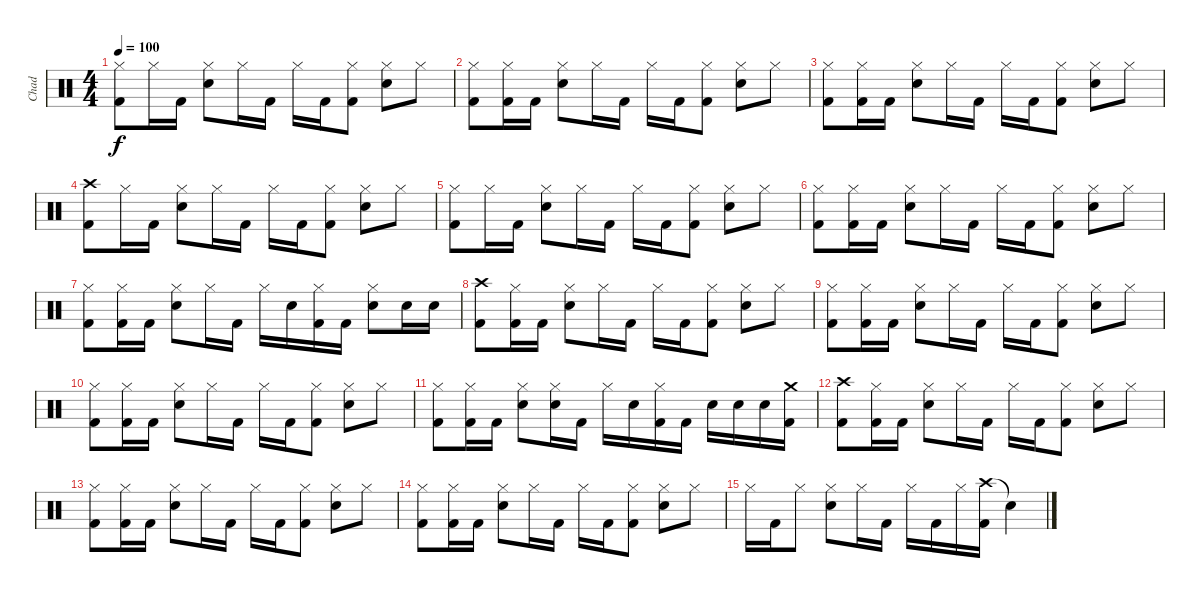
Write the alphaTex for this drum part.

\track ("Chad" "Chad") {instrument percussion}
\staff {score}
\articulation defaults
\ts (4 4)
\tempo 100
\clef neutral
\ks c
("Hi-Hat (closed)" "Kick (hit) 2").8{dy f} "Hi-Hat (closed)".16 "Kick (hit) 2".16 ("Hi-Hat (closed)" "Electric Snare (hit)").8 "Hi-Hat (closed)".16 "Kick (hit) 2".16 "Hi-Hat (closed)".16 "Kick (hit) 2".16 ("Hi-Hat (closed)" "Kick (hit) 2").8 ("Hi-Hat (closed)" "Electric Snare (hit)").8 "Hi-Hat (closed)".8 |
("Hi-Hat (closed)" "Kick (hit) 2").8 ("Hi-Hat (closed)" "Kick (hit) 2").16 "Kick (hit) 2".16 ("Hi-Hat (closed)" "Electric Snare (hit)").8 "Hi-Hat (closed)".16 "Kick (hit) 2".16 "Hi-Hat (closed)".16 "Kick (hit) 2".16 ("Hi-Hat (closed)" "Kick (hit) 2").8 ("Hi-Hat (closed)" "Electric Snare (hit)").8 "Hi-Hat (closed)".8 |
("Hi-Hat (closed)" "Kick (hit) 2").8 ("Hi-Hat (closed)" "Kick (hit) 2").16 "Kick (hit) 2".16 ("Hi-Hat (closed)" "Electric Snare (hit)").8 "Hi-Hat (closed)".16 "Kick (hit) 2".16 "Hi-Hat (closed)".16 "Kick (hit) 2".16 ("Hi-Hat (closed)" "Kick (hit) 2").8 ("Hi-Hat (closed)" "Electric Snare (hit)").8 "Hi-Hat (closed)".8 |
("Crash high (hit)" "Kick (hit) 2").8 "Hi-Hat (closed)".16 "Kick (hit) 2".16 ("Hi-Hat (closed)" "Electric Snare (hit)").8 "Hi-Hat (closed)".16 "Kick (hit) 2".16 "Hi-Hat (closed)".16 "Kick (hit) 2".16 ("Hi-Hat (closed)" "Kick (hit) 2").8 ("Hi-Hat (closed)" "Electric Snare (hit)").8 "Hi-Hat (closed)".8 |
("Hi-Hat (closed)" "Kick (hit) 2").8 "Hi-Hat (closed)".16 "Kick (hit) 2".16 ("Hi-Hat (closed)" "Electric Snare (hit)").8 "Hi-Hat (closed)".16 "Kick (hit) 2".16 "Hi-Hat (closed)".16 "Kick (hit) 2".16 ("Hi-Hat (closed)" "Kick (hit) 2").8 ("Hi-Hat (closed)" "Electric Snare (hit)").8 "Hi-Hat (closed)".8 |
("Hi-Hat (closed)" "Kick (hit) 2").8 ("Hi-Hat (closed)" "Kick (hit) 2").16 "Kick (hit) 2".16 ("Hi-Hat (closed)" "Electric Snare (hit)").8 "Hi-Hat (closed)".16 "Kick (hit) 2".16 "Hi-Hat (closed)".16 "Kick (hit) 2".16 ("Hi-Hat (closed)" "Kick (hit) 2").8 ("Hi-Hat (closed)" "Electric Snare (hit)").8 "Hi-Hat (closed)".8 |
("Hi-Hat (closed)" "Kick (hit) 2").8 ("Hi-Hat (closed)" "Kick (hit) 2").16 "Kick (hit) 2".16 ("Hi-Hat (closed)" "Electric Snare (hit)").8 "Hi-Hat (closed)".16 "Kick (hit) 2".16 "Hi-Hat (closed)".16 "Electric Snare (hit)".16 ("Hi-Hat (closed)" "Kick (hit) 2").16 "Kick (hit) 2".16 ("Hi-Hat (closed)" "Electric Snare (hit)").8 "Electric Snare (hit)".16 "Electric Snare (hit)".16 |
("Crash high (hit)" "Kick (hit) 2").8 ("Hi-Hat (closed)" "Kick (hit) 2").16 "Kick (hit) 2".16 ("Hi-Hat (closed)" "Electric Snare (hit)").8 "Hi-Hat (closed)".16 "Kick (hit) 2".16 "Hi-Hat (closed)".16 "Kick (hit) 2".16 ("Hi-Hat (closed)" "Kick (hit) 2").8 ("Hi-Hat (closed)" "Electric Snare (hit)").8 "Hi-Hat (closed)".8 |
("Hi-Hat (closed)" "Kick (hit) 2").8 ("Hi-Hat (closed)" "Kick (hit) 2").16 "Kick (hit) 2".16 ("Hi-Hat (closed)" "Electric Snare (hit)").8 "Hi-Hat (closed)".16 "Kick (hit) 2".16 "Hi-Hat (closed)".16 "Kick (hit) 2".16 ("Hi-Hat (closed)" "Kick (hit) 2").8 ("Hi-Hat (closed)" "Electric Snare (hit)").8 "Hi-Hat (closed)".8 |
("Hi-Hat (closed)" "Kick (hit) 2").8 ("Hi-Hat (closed)" "Kick (hit) 2").16 "Kick (hit) 2".16 ("Hi-Hat (closed)" "Electric Snare (hit)").8 "Hi-Hat (closed)".16 "Kick (hit) 2".16 "Hi-Hat (closed)".16 "Kick (hit) 2".16 ("Hi-Hat (closed)" "Kick (hit) 2").8 ("Hi-Hat (closed)" "Electric Snare (hit)").8 "Hi-Hat (closed)".8 |
("Hi-Hat (closed)" "Kick (hit) 2").8 ("Hi-Hat (closed)" "Kick (hit) 2").16 "Kick (hit) 2".16 ("Hi-Hat (closed)" "Electric Snare (hit)").8 ("Hi-Hat (closed)" "Electric Snare (hit)").16 "Kick (hit) 2".16 "Hi-Hat (closed)".16 "Electric Snare (hit)".16 ("Hi-Hat (closed)" "Kick (hit) 2").16 "Kick (hit) 2".16 "Electric Snare (hit)".16 "Electric Snare (hit)".16 "Electric Snare (hit)".16 ("Crash medium (hit)" "Kick (hit) 2").16 |
("Crash high (hit)" "Kick (hit) 2").8 ("Hi-Hat (closed)" "Kick (hit) 2").16 "Kick (hit) 2".16 ("Hi-Hat (closed)" "Electric Snare (hit)").8 "Hi-Hat (closed)".16 "Kick (hit) 2".16 "Hi-Hat (closed)".16 "Kick (hit) 2".16 ("Hi-Hat (closed)" "Kick (hit) 2").8 ("Hi-Hat (closed)" "Electric Snare (hit)").8 "Hi-Hat (closed)".8 |
("Hi-Hat (closed)" "Kick (hit) 2").8 ("Hi-Hat (closed)" "Kick (hit) 2").16 "Kick (hit) 2".16 ("Hi-Hat (closed)" "Electric Snare (hit)").8 "Hi-Hat (closed)".16 "Kick (hit) 2".16 "Hi-Hat (closed)".16 "Kick (hit) 2".16 ("Hi-Hat (closed)" "Kick (hit) 2").8 ("Hi-Hat (closed)" "Electric Snare (hit)").8 "Hi-Hat (closed)".8 |
("Hi-Hat (closed)" "Kick (hit) 2").8 ("Hi-Hat (closed)" "Kick (hit) 2").16 "Kick (hit) 2".16 ("Hi-Hat (closed)" "Electric Snare (hit)").8 "Hi-Hat (closed)".16 "Kick (hit) 2".16 "Hi-Hat (closed)".16 "Kick (hit) 2".16 ("Hi-Hat (closed)" "Kick (hit) 2").8 ("Hi-Hat (closed)" "Electric Snare (hit)").8 "Hi-Hat (closed)".8 |
"Hi-Hat (closed)".16 "Kick (hit) 2".16 "Hi-Hat (closed)".8 ("Hi-Hat (closed)" "Electric Snare (hit)").8 "Hi-Hat (closed)".16 "Kick (hit) 2".16 "Hi-Hat (closed)".16 "Kick (hit) 2".16 "Hi-Hat (closed)".16 ("Crash high (hit)" "Kick (hit) 2").16 "Snare (hit)"{t}.4
